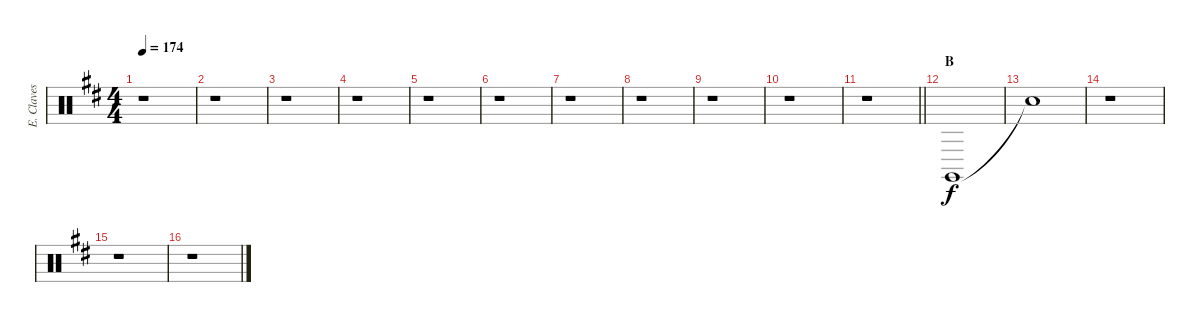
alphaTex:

\track ("E. Claves" "E. Claves") {instrument percussion}
\staff {score}
\articulation defaults
\ts (4 4)
\tempo 174
\clef neutral
\ks bminor
r.1{dy f} |
r.1 |
r.1 |
r.1 |
r.1 |
r.1 |
r.1 |
r.1 |
r.1 |
r.1 |
\barLineRight lightlight
r.1 |
\section ("" "B")
"Claves (hit)".1 |
"Snare (hit)"{t}.1 |
r.1 |
r.1 |
r.1
